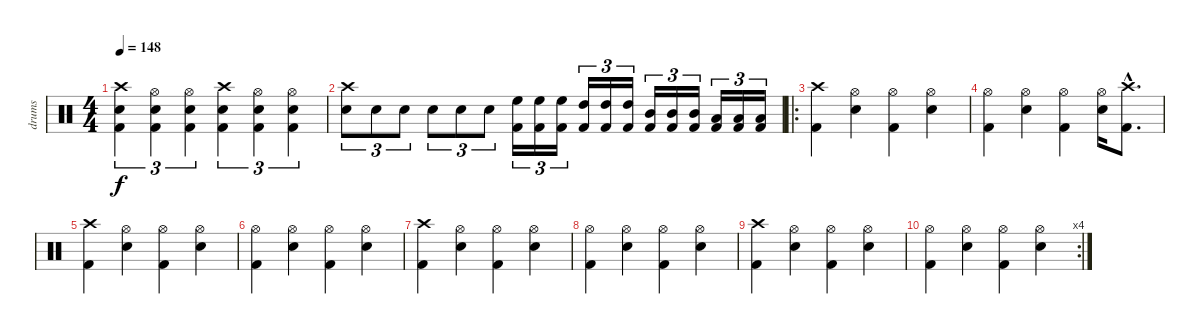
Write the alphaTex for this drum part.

\track ("drums" "drums") {instrument percussion}
\staff {score}
\articulation defaults
\ts (4 4)
\tempo 148
\clef neutral
\ks c
("Kick (hit) 2" "Snare (hit) 2" "Crash high (hit)").4{tu (3 2) dy f} ("Kick (hit) 2" "Snare (hit) 2" "Hi-Hat (open)").4{tu (3 2)} ("Kick (hit) 2" "Snare (hit) 2" "Hi-Hat (open)").4{tu (3 2)} ("Kick (hit) 2" "Snare (hit) 2" "Crash high (hit)").4{tu (3 2)} ("Kick (hit) 2" "Snare (hit) 2" "Hi-Hat (open)").4{tu (3 2)} ("Kick (hit) 2" "Snare (hit) 2" "Hi-Hat (open)").4{tu (3 2)} |
("Snare (hit) 2" "Crash high (hit)").8{tu (3 2)} "Snare (hit) 2".8{tu (3 2)} "Snare (hit) 2".8{tu (3 2)} "Snare (hit) 2".8{tu (3 2)} "Snare (hit) 2".8{tu (3 2)} "Snare (hit) 2".8{tu (3 2)} ("Kick (hit) 2" "High Floor Tom (hit)").16{tu (3 2)} ("Kick (hit) 2" "High Floor Tom (hit)").16{tu (3 2)} ("Kick (hit) 2" "High Floor Tom (hit)").16{tu (3 2)} ("Kick (hit) 2" "High Tom (hit)").16{tu (3 2)} ("Kick (hit) 2" "High Tom (hit)").16{tu (3 2)} ("Kick (hit) 2" "High Tom (hit)").16{tu (3 2)} ("Kick (hit) 2" "Mid Tom (hit)").16{tu (3 2)} ("Kick (hit) 2" "Mid Tom (hit)").16{tu (3 2)} ("Kick (hit) 2" "Mid Tom (hit)").16{tu (3 2)} ("Kick (hit) 2" "Low Tom (hit)").16{tu (3 2)} ("Kick (hit) 2" "Low Tom (hit)").16{tu (3 2)} ("Kick (hit) 2" "Low Tom (hit)").16{tu (3 2)} |
\ro
("Kick (hit) 2" "Crash high (hit)").4 ("Snare (hit) 2" "Hi-Hat (open)").4 ("Kick (hit) 2" "Hi-Hat (open)").4 ("Snare (hit) 2" "Hi-Hat (open)").4 |
("Kick (hit) 2" "Hi-Hat (open)").4 ("Snare (hit) 2" "Hi-Hat (open)").4 ("Kick (hit) 2" "Hi-Hat (open)").4 ("Snare (hit) 2" "Hi-Hat (open)").16 ("Kick (hit) 2"{hac} "Crash high (hit)"{hac}).8{d} |
("Kick (hit) 2" "Crash high (hit)").4 ("Snare (hit) 2" "Hi-Hat (open)").4 ("Kick (hit) 2" "Hi-Hat (open)").4 ("Snare (hit) 2" "Hi-Hat (open)").4 |
("Kick (hit) 2" "Hi-Hat (open)").4 ("Snare (hit) 2" "Hi-Hat (open)").4 ("Kick (hit) 2" "Hi-Hat (open)").4 ("Snare (hit) 2" "Hi-Hat (open)").4 |
("Kick (hit) 2" "Crash high (hit)").4 ("Snare (hit) 2" "Hi-Hat (open)").4 ("Kick (hit) 2" "Hi-Hat (open)").4 ("Snare (hit) 2" "Hi-Hat (open)").4 |
("Kick (hit) 2" "Hi-Hat (open)").4 ("Snare (hit) 2" "Hi-Hat (open)").4 ("Kick (hit) 2" "Hi-Hat (open)").4 ("Snare (hit) 2" "Hi-Hat (open)").4 |
("Kick (hit) 2" "Crash high (hit)").4 ("Snare (hit) 2" "Hi-Hat (open)").4 ("Kick (hit) 2" "Hi-Hat (open)").4 ("Snare (hit) 2" "Hi-Hat (open)").4 |
\rc 4
("Kick (hit) 2" "Hi-Hat (open)").4 ("Snare (hit) 2" "Hi-Hat (open)").4 ("Kick (hit) 2" "Hi-Hat (open)").4 ("Snare (hit) 2" "Hi-Hat (open)").4
